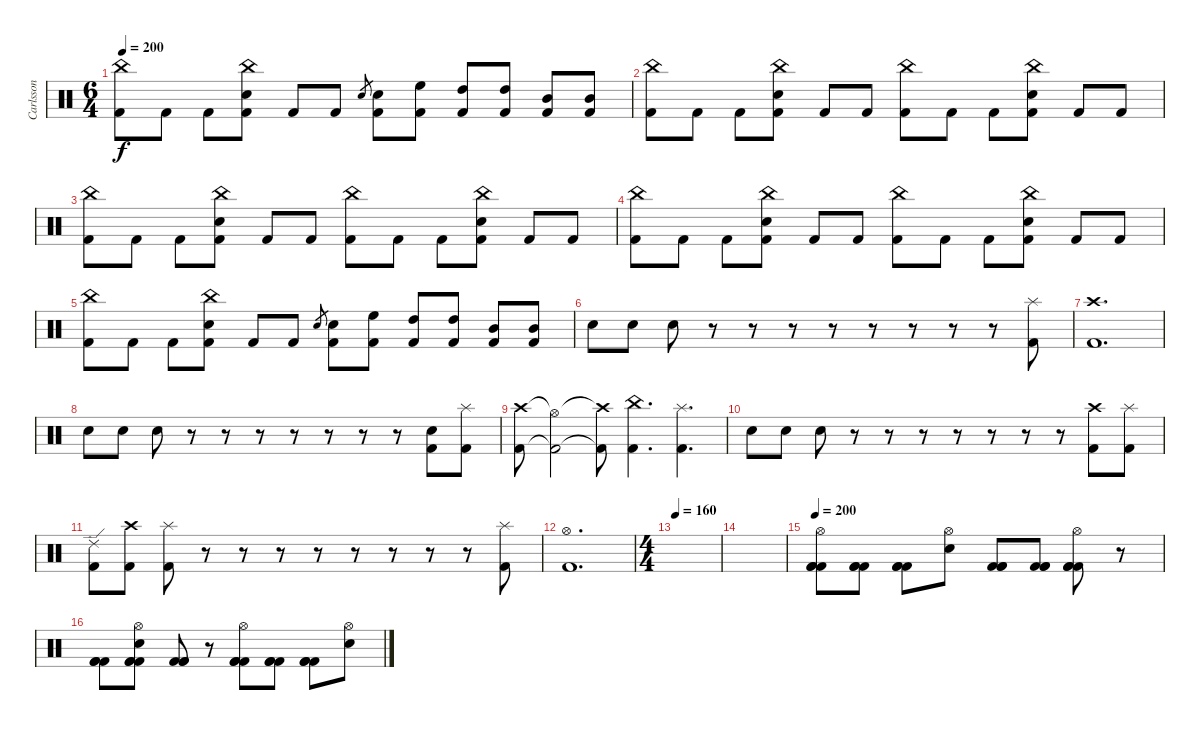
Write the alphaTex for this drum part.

\track ("Carlsson" "Carlsson") {instrument percussion}
\staff {score}
\articulation defaults
\ts (6 4)
\tempo 200
\clef neutral
\ks c
("China (hit)" "Kick (hit) 2").8{dy f} "Kick (hit) 2".8 "Kick (hit) 2".8 ("China (hit)" "Snare (hit) 2" "Kick (hit) 2").8 "Kick (hit) 2".8 "Kick (hit) 2".8 "Snare (hit) 2".8{gr} ("Snare (hit) 2" "Kick (hit) 2").8 ("High Floor Tom (hit)" "Kick (hit) 2").8 ("High Tom (hit)" "Kick (hit) 2").8 ("High Tom (hit)" "Kick (hit) 2").8 ("Mid Tom (hit)" "Kick (hit) 2").8 ("Mid Tom (hit)" "Kick (hit) 2").8 |
("China (hit)" "Kick (hit) 2").8 "Kick (hit) 2".8 "Kick (hit) 2".8 ("China (hit)" "Snare (hit) 2" "Kick (hit) 2").8 "Kick (hit) 2".8 "Kick (hit) 2".8 ("China (hit)" "Kick (hit) 2").8 "Kick (hit) 2".8 "Kick (hit) 2".8 ("China (hit)" "Snare (hit) 2" "Kick (hit) 2").8 "Kick (hit) 2".8 "Kick (hit) 2".8 |
("China (hit)" "Kick (hit) 2").8 "Kick (hit) 2".8 "Kick (hit) 2".8 ("China (hit)" "Snare (hit) 2" "Kick (hit) 2").8 "Kick (hit) 2".8 "Kick (hit) 2".8 ("China (hit)" "Kick (hit) 2").8 "Kick (hit) 2".8 "Kick (hit) 2".8 ("China (hit)" "Snare (hit) 2" "Kick (hit) 2").8 "Kick (hit) 2".8 "Kick (hit) 2".8 |
("China (hit)" "Kick (hit) 2").8 "Kick (hit) 2".8 "Kick (hit) 2".8 ("China (hit)" "Snare (hit) 2" "Kick (hit) 2").8 "Kick (hit) 2".8 "Kick (hit) 2".8 ("China (hit)" "Kick (hit) 2").8 "Kick (hit) 2".8 "Kick (hit) 2".8 ("China (hit)" "Snare (hit) 2" "Kick (hit) 2").8 "Kick (hit) 2".8 "Kick (hit) 2".8 |
("China (hit)" "Kick (hit) 2").8 "Kick (hit) 2".8 "Kick (hit) 2".8 ("China (hit)" "Snare (hit) 2" "Kick (hit) 2").8 "Kick (hit) 2".8 "Kick (hit) 2".8 "Snare (hit) 2".8{gr} ("Snare (hit) 2" "Kick (hit) 2").8 ("High Floor Tom (hit)" "Kick (hit) 2").8 ("High Tom (hit)" "Kick (hit) 2").8 ("High Tom (hit)" "Kick (hit) 2").8 ("Mid Tom (hit)" "Kick (hit) 2").8 ("Mid Tom (hit)" "Kick (hit) 2").8 |
"Snare (hit) 2".8 "Snare (hit) 2".8 "Snare (hit) 2".8 r.8 r.8 r.8 r.8 r.8 r.8 r.8 r.8 ("Splash (hit)" "Kick (hit) 2").8 |
("Crash high (hit)" "Kick (hit) 2").1{d} |
"Snare (hit) 2".8 "Snare (hit) 2".8 "Snare (hit) 2".8 r.8 r.8 r.8 r.8 r.8 r.8 r.8 ("Snare (hit)" "Kick (hit) 2").8 ("Splash (hit)" "Kick (hit) 2").8 |
("Crash high (hit)" "Kick (hit) 2").8 ("Hi-Hat (open)"{t} "Kick (hit) 2"{t}).2 ("Crash high (hit)"{t} "Kick (hit) 2"{t}).8 ("China (hit)" "Kick (hit) 2").4{d} ("Splash (hit)" "Kick (hit) 2").4{d} |
"Snare (hit) 2".8 "Snare (hit) 2".8 "Snare (hit) 2".8 r.8 r.8 r.8 r.8 r.8 r.8 r.8 ("Crash high (hit)" "Kick (hit) 2").8 ("Splash (hit)" "Kick (hit) 2").8 |
("Ride (edge) 2" "Kick (hit) 2").8 ("Crash high (hit)" "Kick (hit) 2").8 ("Splash (hit)" "Kick (hit) 2").8 r.8 r.8 r.8 r.8 r.8 r.8 r.8 r.8 ("Splash (hit)" "Kick (hit) 2").8 |
("Hi-Hat (open)" "Kick (hit) 2").1{d} |
\ts (4 4)
\tempo 160
|
|
\tempo 200
("Hi-Hat (open)" "Kick (hit) 2" "Kick (hit) 2" "Kick (hit) 2").8 ("Kick (hit) 2" "Kick (hit) 2" "Kick (hit) 2").8 ("Kick (hit) 2" "Kick (hit) 2" "Kick (hit) 2").8 ("Hi-Hat (open)" "Snare (hit) 2").8 ("Kick (hit) 2" "Kick (hit) 2" "Kick (hit) 2").8 ("Kick (hit) 2" "Kick (hit) 2" "Kick (hit) 2").8 ("Hi-Hat (open)" "Kick (hit) 2" "Kick (hit) 2" "Kick (hit) 2").8 r.8 |
("Kick (hit) 2" "Kick (hit) 2" "Kick (hit) 2").8 ("Hi-Hat (open)" "Snare (hit) 2" "Kick (hit) 2" "Kick (hit) 2" "Kick (hit) 2").8 ("Kick (hit) 2" "Kick (hit) 2" "Kick (hit) 2").8 r.8 ("Hi-Hat (open)" "Kick (hit) 2" "Kick (hit) 2" "Kick (hit) 2").8 ("Kick (hit) 2" "Kick (hit) 2" "Kick (hit) 2").8 ("Kick (hit) 2" "Kick (hit) 2" "Kick (hit) 2").8 ("Hi-Hat (open)" "Snare (hit) 2").8
